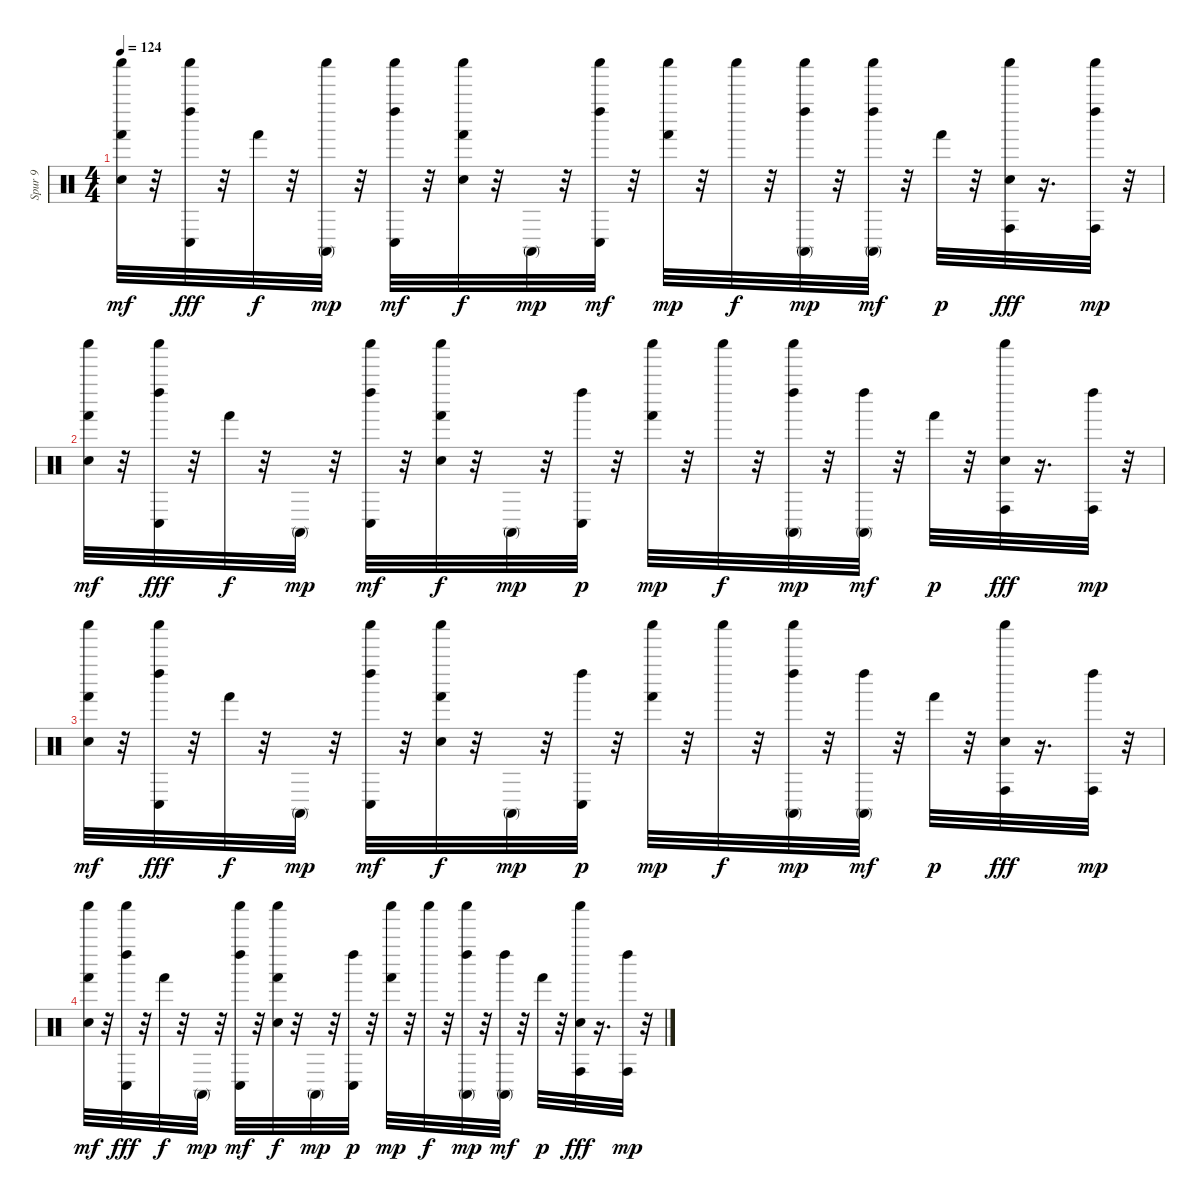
\track ("Spur 9" "Spur 9") {instrument percussion}
\staff {score}
\articulation defaults
\ts (4 4)
\tempo 124
\clef neutral
\ks c
("Electric Snare (hit)" "Hand (hit)" "Shaker (hit)").32{dy mf} r.32 ("Conga low (hit)" "Left Maraca (hit)" "Shaker (hit)").32{dy fff} r.32 "Hand (hit)".32{dy f} r.32 ("Conga high (mute)" "Shaker (hit)").32{dy mp} r.32 ("Conga low (hit)" "Left Maraca (hit)" "Shaker (hit)").32{dy mf} r.32 ("Electric Snare (hit)" "Hand (hit)" "Shaker (hit)").32{dy f} r.32 "Conga high (mute)".32{dy mp} r.32 ("Conga low (hit)" "Left Maraca (hit)" "Shaker (hit)").32{dy mf} r.32 ("Hand (hit)" "Shaker (hit)").32{dy mp} r.32 "Shaker (hit)".32{dy f} r.32 ("Conga high (mute)" "Left Maraca (hit)" "Shaker (hit)").32{dy mp} r.32 ("Conga high (mute)" "Left Maraca (hit)" "Shaker (hit)").32{dy mf} r.32 "Hand (hit)".32{dy p} r.32 ("Electric Snare (hit)" "Conga high (hit)" "Shaker (hit)").32{dy fff} r.16{d} ("Conga high (hit)" "Left Maraca (hit)" "Shaker (hit)").32{dy mp} r.32 |
("Electric Snare (hit)" "Hand (hit)" "Shaker (hit)").32{dy mf} r.32 ("Conga low (hit)" "Left Maraca (hit)" "Shaker (hit)").32{dy fff} r.32 "Hand (hit)".32{dy f} r.32 "Conga high (mute)".32{dy mp} r.32 ("Conga low (hit)" "Left Maraca (hit)" "Shaker (hit)").32{dy mf} r.32 ("Electric Snare (hit)" "Hand (hit)" "Shaker (hit)").32{dy f} r.32 "Conga high (mute)".32{dy mp} r.32 ("Conga low (hit)" "Left Maraca (hit)").32{dy p} r.32 ("Hand (hit)" "Shaker (hit)").32{dy mp} r.32 "Shaker (hit)".32{dy f} r.32 ("Conga high (mute)" "Left Maraca (hit)" "Shaker (hit)").32{dy mp} r.32 ("Conga high (mute)" "Left Maraca (hit)").32{dy mf} r.32 "Hand (hit)".32{dy p} r.32 ("Electric Snare (hit)" "Conga high (hit)" "Shaker (hit)").32{dy fff} r.16{d} ("Conga high (hit)" "Left Maraca (hit)").32{dy mp} r.32 |
("Electric Snare (hit)" "Hand (hit)" "Shaker (hit)").32{dy mf} r.32 ("Conga low (hit)" "Left Maraca (hit)" "Shaker (hit)").32{dy fff} r.32 "Hand (hit)".32{dy f} r.32 "Conga high (mute)".32{dy mp} r.32 ("Conga low (hit)" "Left Maraca (hit)" "Shaker (hit)").32{dy mf} r.32 ("Electric Snare (hit)" "Hand (hit)" "Shaker (hit)").32{dy f} r.32 "Conga high (mute)".32{dy mp} r.32 ("Conga low (hit)" "Left Maraca (hit)").32{dy p} r.32 ("Hand (hit)" "Shaker (hit)").32{dy mp} r.32 "Shaker (hit)".32{dy f} r.32 ("Conga high (mute)" "Left Maraca (hit)" "Shaker (hit)").32{dy mp} r.32 ("Conga high (mute)" "Left Maraca (hit)").32{dy mf} r.32 "Hand (hit)".32{dy p} r.32 ("Electric Snare (hit)" "Conga high (hit)" "Shaker (hit)").32{dy fff} r.16{d} ("Conga high (hit)" "Left Maraca (hit)").32{dy mp} r.32 |
("Electric Snare (hit)" "Hand (hit)" "Shaker (hit)").32{dy mf} r.32 ("Conga low (hit)" "Left Maraca (hit)" "Shaker (hit)").32{dy fff} r.32 "Hand (hit)".32{dy f} r.32 "Conga high (mute)".32{dy mp} r.32 ("Conga low (hit)" "Left Maraca (hit)" "Shaker (hit)").32{dy mf} r.32 ("Electric Snare (hit)" "Hand (hit)" "Shaker (hit)").32{dy f} r.32 "Conga high (mute)".32{dy mp} r.32 ("Conga low (hit)" "Left Maraca (hit)").32{dy p} r.32 ("Hand (hit)" "Shaker (hit)").32{dy mp} r.32 "Shaker (hit)".32{dy f} r.32 ("Conga high (mute)" "Left Maraca (hit)" "Shaker (hit)").32{dy mp} r.32 ("Conga high (mute)" "Left Maraca (hit)").32{dy mf} r.32 "Hand (hit)".32{dy p} r.32 ("Electric Snare (hit)" "Conga high (hit)" "Shaker (hit)").32{dy fff} r.16{d} ("Conga high (hit)" "Left Maraca (hit)").32{dy mp} r.32
